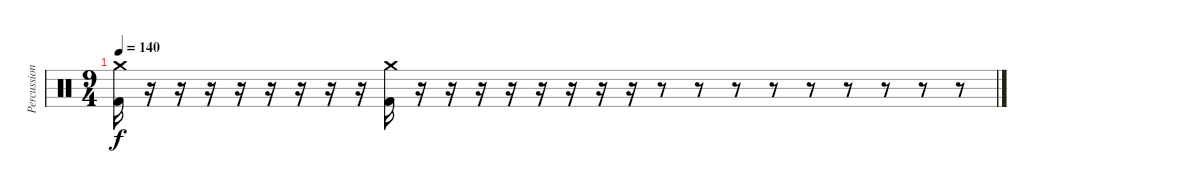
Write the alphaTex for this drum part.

\track ("Percussion" "Percussion") {instrument percussion}
\staff {score}
\articulation defaults
\ts (9 4)
\tempo 140
\clef neutral
\ks c
("Crash medium (hit)" "Kick (hit) 2").16{dy f} r.16 r.16 r.16 r.16 r.16 r.16 r.16 r.16 ("Crash medium (hit)" "Kick (hit) 2").16 r.16 r.16 r.16 r.16 r.16 r.16 r.16 r.16 r.8 r.8 r.8 r.8 r.8 r.8 r.8 r.8 r.8
